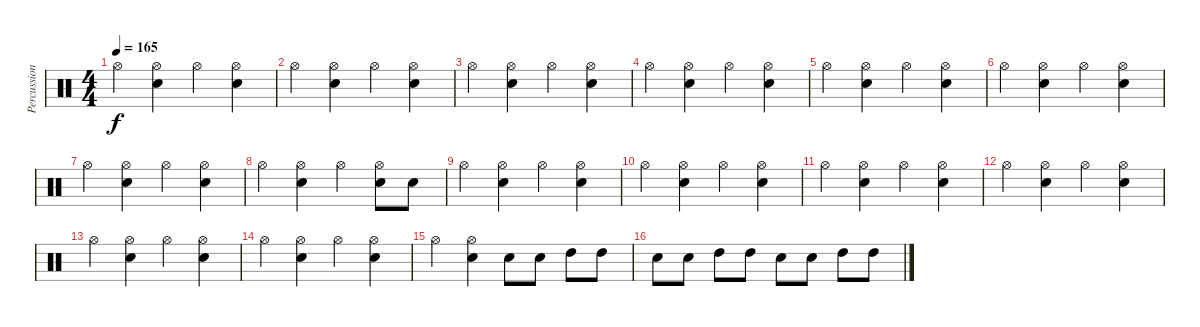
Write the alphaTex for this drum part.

\track ("Percussion" "Percussion") {instrument percussion}
\staff {score}
\articulation defaults
\ts (4 4)
\tempo 165
\clef neutral
\ks c "Hi-Hat (open)".4{dy f}
("Electric Snare (hit)" "Hi-Hat (open)").4 "Hi-Hat (open)".4 ("Electric Snare (hit)" "Hi-Hat (open)").4 |
"Hi-Hat (open)".4 ("Electric Snare (hit)" "Hi-Hat (open)").4 "Hi-Hat (open)".4 ("Electric Snare (hit)" "Hi-Hat (open)").4 |
"Hi-Hat (open)".4 ("Electric Snare (hit)" "Hi-Hat (open)").4 "Hi-Hat (open)".4 ("Electric Snare (hit)" "Hi-Hat (open)").4 |
"Hi-Hat (open)".4 ("Electric Snare (hit)" "Hi-Hat (open)").4 "Hi-Hat (open)".4 ("Electric Snare (hit)" "Hi-Hat (open)").4 |
"Hi-Hat (open)".4 ("Electric Snare (hit)" "Hi-Hat (open)").4 "Hi-Hat (open)".4 ("Electric Snare (hit)" "Hi-Hat (open)").4 |
"Hi-Hat (open)".4 ("Electric Snare (hit)" "Hi-Hat (open)").4 "Hi-Hat (open)".4 ("Electric Snare (hit)" "Hi-Hat (open)").4 |
"Hi-Hat (open)".4 ("Electric Snare (hit)" "Hi-Hat (open)").4 "Hi-Hat (open)".4 ("Electric Snare (hit)" "Hi-Hat (open)").4 |
"Hi-Hat (open)".4 ("Electric Snare (hit)" "Hi-Hat (open)").4 "Hi-Hat (open)".4 ("Electric Snare (hit)" "Hi-Hat (open)").8 "Electric Snare (hit)".8 |
"Hi-Hat (open)".4 ("Electric Snare (hit)" "Hi-Hat (open)").4 "Hi-Hat (open)".4 ("Electric Snare (hit)" "Hi-Hat (open)").4 |
"Hi-Hat (open)".4 ("Electric Snare (hit)" "Hi-Hat (open)").4 "Hi-Hat (open)".4 ("Electric Snare (hit)" "Hi-Hat (open)").4 |
"Hi-Hat (open)".4 ("Electric Snare (hit)" "Hi-Hat (open)").4 "Hi-Hat (open)".4 ("Electric Snare (hit)" "Hi-Hat (open)").4 |
"Hi-Hat (open)".4 ("Electric Snare (hit)" "Hi-Hat (open)").4 "Hi-Hat (open)".4 ("Electric Snare (hit)" "Hi-Hat (open)").4 |
"Hi-Hat (open)".4 ("Electric Snare (hit)" "Hi-Hat (open)").4 "Hi-Hat (open)".4 ("Electric Snare (hit)" "Hi-Hat (open)").4 |
"Hi-Hat (open)".4 ("Electric Snare (hit)" "Hi-Hat (open)").4 "Hi-Hat (open)".4 ("Electric Snare (hit)" "Hi-Hat (open)").4 |
"Hi-Hat (open)".4 ("Electric Snare (hit)" "Hi-Hat (open)").4 "Electric Snare (hit)".8 "Electric Snare (hit)".8 "High Tom (hit)".8 "High Tom (hit)".8 |
"Electric Snare (hit)".8 "Electric Snare (hit)".8 "High Tom (hit)".8 "High Tom (hit)".8 "Electric Snare (hit)".8 "Electric Snare (hit)".8 "High Tom (hit)".8 "High Tom (hit)".8
